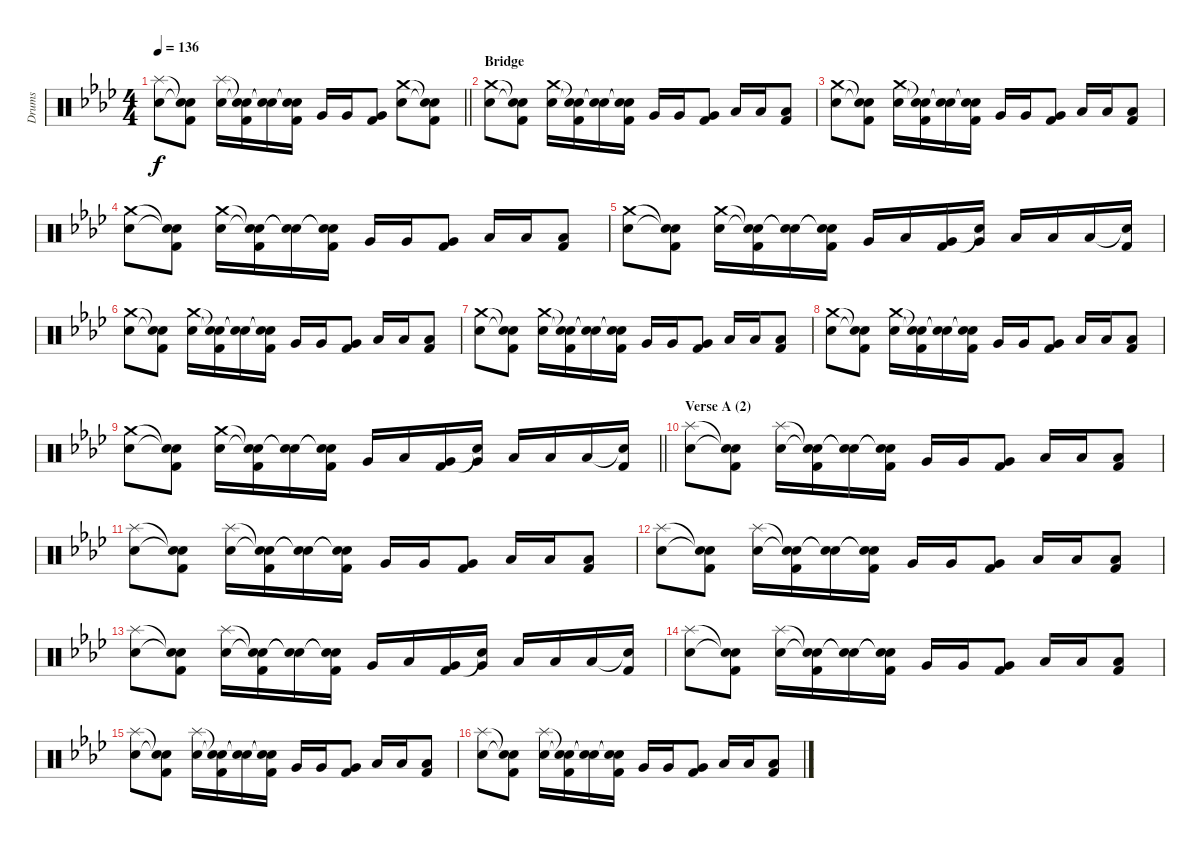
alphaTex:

\track ("Drums" "Drums") {instrument percussion}
\staff {score}
\articulation defaults
\ts (4 4)
\tempo 136
\clef neutral
\barLineRight lightlight
\ks ab
("Splash (hit)" "Electric Snare (hit)").8{dy f} ("Snare (hit)"{t} "Snare (hit)"{t} "Kick (hit) 2").8 ("Splash (hit)" "Electric Snare (hit)").16 ("Snare (hit)"{t} "Snare (hit)"{t} "Kick (hit) 2").16 ("Snare (hit)"{t} "Snare (hit)"{t}).16 ("Snare (hit)"{t} "Snare (hit)"{t} "Kick (hit) 2").16 "Very Low Tom (hit)".16 "Very Low Tom (hit)".16 ("Very Low Tom (hit)" "Kick (hit) 2").8 ("Crash medium (hit)" "Electric Snare (hit)").8 ("Snare (hit)"{t} "Snare (hit)"{t} "Kick (hit) 2").8 |
\section ("" "Bridge")
("Crash medium (hit)" "Electric Snare (hit)").8 ("Snare (hit)"{t} "Snare (hit)"{t} "Kick (hit) 2").8 ("Crash medium (hit)" "Electric Snare (hit)").16 ("Snare (hit)"{t} "Snare (hit)"{t} "Kick (hit) 2").16 ("Snare (hit)"{t} "Snare (hit)"{t}).16 ("Snare (hit)"{t} "Snare (hit)"{t} "Kick (hit) 2").16 "Very Low Tom (hit)".16 "Very Low Tom (hit)".16 ("Very Low Tom (hit)" "Kick (hit) 2").8 "Low Floor Tom (hit)".16 "Low Floor Tom (hit)".16 ("Low Floor Tom (hit)" "Kick (hit) 2").8 |
("Crash medium (hit)" "Electric Snare (hit)").8 ("Snare (hit)"{t} "Snare (hit)"{t} "Kick (hit) 2").8 ("Crash medium (hit)" "Electric Snare (hit)").16 ("Snare (hit)"{t} "Snare (hit)"{t} "Kick (hit) 2").16 ("Snare (hit)"{t} "Snare (hit)"{t}).16 ("Snare (hit)"{t} "Snare (hit)"{t} "Kick (hit) 2").16 "Very Low Tom (hit)".16 "Very Low Tom (hit)".16 ("Very Low Tom (hit)" "Kick (hit) 2").8 "Low Floor Tom (hit)".16 "Low Floor Tom (hit)".16 ("Low Floor Tom (hit)" "Kick (hit) 2").8 |
("Crash medium (hit)" "Electric Snare (hit)").8 ("Snare (hit)"{t} "Snare (hit)"{t} "Kick (hit) 2").8 ("Crash medium (hit)" "Electric Snare (hit)").16 ("Snare (hit)"{t} "Snare (hit)"{t} "Kick (hit) 2").16 ("Snare (hit)"{t} "Snare (hit)"{t}).16 ("Snare (hit)"{t} "Snare (hit)"{t} "Kick (hit) 2").16 "Very Low Tom (hit)".16 "Very Low Tom (hit)".16 ("Very Low Tom (hit)" "Kick (hit) 2").8 "Low Floor Tom (hit)".16 "Low Floor Tom (hit)".16 ("Low Floor Tom (hit)" "Kick (hit) 2").8 |
("Crash medium (hit)" "Electric Snare (hit)").8 ("Snare (hit)"{t} "Snare (hit)"{t} "Kick (hit) 2").8 ("Crash medium (hit)" "Electric Snare (hit)").16 ("Snare (hit)"{t} "Snare (hit)"{t} "Kick (hit) 2").16 ("Snare (hit)"{t} "Snare (hit)"{t}).16 ("Snare (hit)"{t} "Snare (hit)"{t} "Kick (hit) 2").16 "Very Low Tom (hit)".16 "Low Tom (hit)".16 ("Very Low Tom (hit)" "Kick (hit) 2").16 ("Very Low Tom (hit)" "Snare (hit)"{t}).16 "Low Floor Tom (hit)".16 "Low Floor Tom (hit)".16 "Low Floor Tom (hit)".16 ("Snare (hit)"{t} "Kick (hit) 2").16 |
("Crash medium (hit)" "Electric Snare (hit)").8 ("Snare (hit)"{t} "Snare (hit)"{t} "Kick (hit) 2").8 ("Crash medium (hit)" "Electric Snare (hit)").16 ("Snare (hit)"{t} "Snare (hit)"{t} "Kick (hit) 2").16 ("Snare (hit)"{t} "Snare (hit)"{t}).16 ("Snare (hit)"{t} "Snare (hit)"{t} "Kick (hit) 2").16 "Very Low Tom (hit)".16 "Very Low Tom (hit)".16 ("Very Low Tom (hit)" "Kick (hit) 2").8 "Low Floor Tom (hit)".16 "Low Floor Tom (hit)".16 ("Low Floor Tom (hit)" "Kick (hit) 2").8 |
("Crash medium (hit)" "Electric Snare (hit)").8 ("Snare (hit)"{t} "Snare (hit)"{t} "Kick (hit) 2").8 ("Crash medium (hit)" "Electric Snare (hit)").16 ("Snare (hit)"{t} "Snare (hit)"{t} "Kick (hit) 2").16 ("Snare (hit)"{t} "Snare (hit)"{t}).16 ("Snare (hit)"{t} "Snare (hit)"{t} "Kick (hit) 2").16 "Very Low Tom (hit)".16 "Very Low Tom (hit)".16 ("Very Low Tom (hit)" "Kick (hit) 2").8 "Low Floor Tom (hit)".16 "Low Floor Tom (hit)".16 ("Low Floor Tom (hit)" "Kick (hit) 2").8 |
("Crash medium (hit)" "Electric Snare (hit)").8 ("Snare (hit)"{t} "Snare (hit)"{t} "Kick (hit) 2").8 ("Crash medium (hit)" "Electric Snare (hit)").16 ("Snare (hit)"{t} "Snare (hit)"{t} "Kick (hit) 2").16 ("Snare (hit)"{t} "Snare (hit)"{t}).16 ("Snare (hit)"{t} "Snare (hit)"{t} "Kick (hit) 2").16 "Very Low Tom (hit)".16 "Very Low Tom (hit)".16 ("Very Low Tom (hit)" "Kick (hit) 2").8 "Low Floor Tom (hit)".16 "Low Floor Tom (hit)".16 ("Low Floor Tom (hit)" "Kick (hit) 2").8 |
\barLineRight lightlight
("Crash medium (hit)" "Electric Snare (hit)").8 ("Snare (hit)"{t} "Snare (hit)"{t} "Kick (hit) 2").8 ("Crash medium (hit)" "Electric Snare (hit)").16 ("Snare (hit)"{t} "Snare (hit)"{t} "Kick (hit) 2").16 ("Snare (hit)"{t} "Snare (hit)"{t}).16 ("Snare (hit)"{t} "Snare (hit)"{t} "Kick (hit) 2").16 "Very Low Tom (hit)".16 "Low Tom (hit)".16 ("Very Low Tom (hit)" "Kick (hit) 2").16 ("Very Low Tom (hit)" "Snare (hit)"{t}).16 "Low Floor Tom (hit)".16 "Low Floor Tom (hit)".16 "Low Floor Tom (hit)".16 ("Snare (hit)"{t} "Kick (hit) 2").16 |
\section ("" "Verse A (2)")
("Splash (hit)" "Electric Snare (hit)").8 ("Snare (hit)"{t} "Snare (hit)"{t} "Kick (hit) 2").8 ("Splash (hit)" "Electric Snare (hit)").16 ("Snare (hit)"{t} "Snare (hit)"{t} "Kick (hit) 2").16 ("Snare (hit)"{t} "Snare (hit)"{t}).16 ("Snare (hit)"{t} "Snare (hit)"{t} "Kick (hit) 2").16 "Very Low Tom (hit)".16 "Very Low Tom (hit)".16 ("Very Low Tom (hit)" "Kick (hit) 2").8 "Low Floor Tom (hit)".16 "Low Floor Tom (hit)".16 ("Low Floor Tom (hit)" "Kick (hit) 2").8 |
("Splash (hit)" "Electric Snare (hit)").8 ("Snare (hit)"{t} "Snare (hit)"{t} "Kick (hit) 2").8 ("Splash (hit)" "Electric Snare (hit)").16 ("Snare (hit)"{t} "Snare (hit)"{t} "Kick (hit) 2").16 ("Snare (hit)"{t} "Snare (hit)"{t}).16 ("Snare (hit)"{t} "Snare (hit)"{t} "Kick (hit) 2").16 "Very Low Tom (hit)".16 "Very Low Tom (hit)".16 ("Very Low Tom (hit)" "Kick (hit) 2").8 "Low Floor Tom (hit)".16 "Low Floor Tom (hit)".16 ("Low Floor Tom (hit)" "Kick (hit) 2").8 |
("Splash (hit)" "Electric Snare (hit)").8 ("Snare (hit)"{t} "Snare (hit)"{t} "Kick (hit) 2").8 ("Splash (hit)" "Electric Snare (hit)").16 ("Snare (hit)"{t} "Snare (hit)"{t} "Kick (hit) 2").16 ("Snare (hit)"{t} "Snare (hit)"{t}).16 ("Snare (hit)"{t} "Snare (hit)"{t} "Kick (hit) 2").16 "Very Low Tom (hit)".16 "Very Low Tom (hit)".16 ("Very Low Tom (hit)" "Kick (hit) 2").8 "Low Floor Tom (hit)".16 "Low Floor Tom (hit)".16 ("Low Floor Tom (hit)" "Kick (hit) 2").8 |
("Splash (hit)" "Electric Snare (hit)").8 ("Snare (hit)"{t} "Snare (hit)"{t} "Kick (hit) 2").8 ("Splash (hit)" "Electric Snare (hit)").16 ("Snare (hit)"{t} "Snare (hit)"{t} "Kick (hit) 2").16 ("Snare (hit)"{t} "Snare (hit)"{t}).16 ("Snare (hit)"{t} "Snare (hit)"{t} "Kick (hit) 2").16 "Very Low Tom (hit)".16 "Low Tom (hit)".16 ("Very Low Tom (hit)" "Kick (hit) 2").16 ("Very Low Tom (hit)" "Snare (hit)"{t}).16 "Low Floor Tom (hit)".16 "Low Floor Tom (hit)".16 "Low Floor Tom (hit)".16 ("Snare (hit)"{t} "Kick (hit) 2").16 |
("Splash (hit)" "Electric Snare (hit)").8 ("Snare (hit)"{t} "Snare (hit)"{t} "Kick (hit) 2").8 ("Splash (hit)" "Electric Snare (hit)").16 ("Snare (hit)"{t} "Snare (hit)"{t} "Kick (hit) 2").16 ("Snare (hit)"{t} "Snare (hit)"{t}).16 ("Snare (hit)"{t} "Snare (hit)"{t} "Kick (hit) 2").16 "Very Low Tom (hit)".16 "Very Low Tom (hit)".16 ("Very Low Tom (hit)" "Kick (hit) 2").8 "Low Floor Tom (hit)".16 "Low Floor Tom (hit)".16 ("Low Floor Tom (hit)" "Kick (hit) 2").8 |
("Splash (hit)" "Electric Snare (hit)").8 ("Snare (hit)"{t} "Snare (hit)"{t} "Kick (hit) 2").8 ("Splash (hit)" "Electric Snare (hit)").16 ("Snare (hit)"{t} "Snare (hit)"{t} "Kick (hit) 2").16 ("Snare (hit)"{t} "Snare (hit)"{t}).16 ("Snare (hit)"{t} "Snare (hit)"{t} "Kick (hit) 2").16 "Very Low Tom (hit)".16 "Very Low Tom (hit)".16 ("Very Low Tom (hit)" "Kick (hit) 2").8 "Low Floor Tom (hit)".16 "Low Floor Tom (hit)".16 ("Low Floor Tom (hit)" "Kick (hit) 2").8 |
("Splash (hit)" "Electric Snare (hit)").8 ("Snare (hit)"{t} "Snare (hit)"{t} "Kick (hit) 2").8 ("Splash (hit)" "Electric Snare (hit)").16 ("Snare (hit)"{t} "Snare (hit)"{t} "Kick (hit) 2").16 ("Snare (hit)"{t} "Snare (hit)"{t}).16 ("Snare (hit)"{t} "Snare (hit)"{t} "Kick (hit) 2").16 "Very Low Tom (hit)".16 "Very Low Tom (hit)".16 ("Very Low Tom (hit)" "Kick (hit) 2").8 "Low Floor Tom (hit)".16 "Low Floor Tom (hit)".16 ("Low Floor Tom (hit)" "Kick (hit) 2").8
